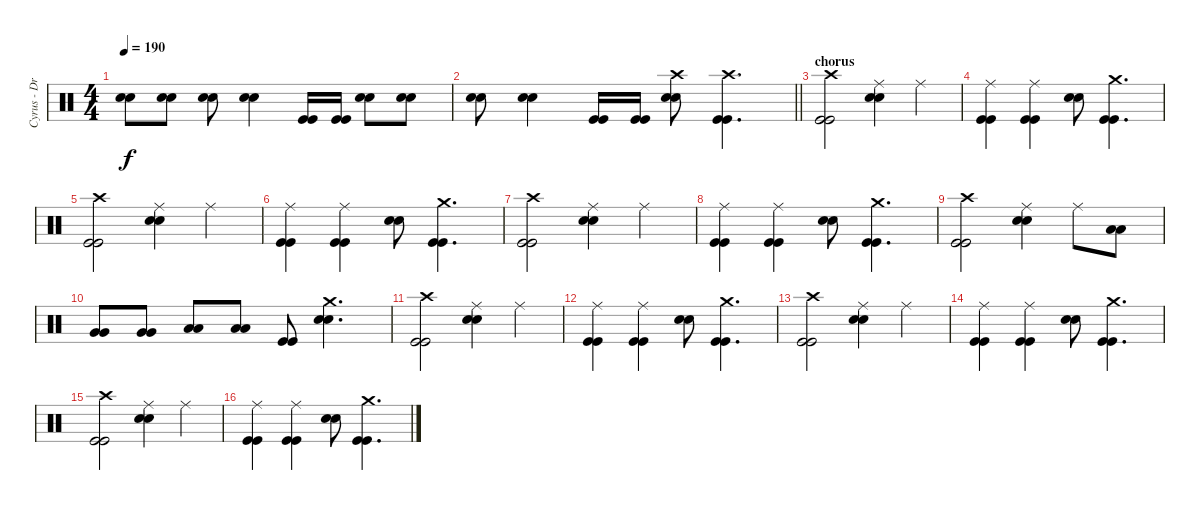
\track ("Cyrus - Drums" "Cyrus - Dr") {instrument percussion}
\staff {score}
\articulation defaults
\ts (4 4)
\tempo 190
\clef neutral
\ks c
("Snare (hit) 2" "Snare (hit) 2").8{dy f} ("Snare (hit) 2" "Snare (hit) 2").8 ("Snare (hit) 2" "Snare (hit) 2").8 ("Snare (hit) 2" "Snare (hit) 2").4 ("Kick (hit)" "Kick (hit)").16 ("Kick (hit)" "Kick (hit)").16 ("Snare (hit) 2" "Snare (hit) 2").8 ("Snare (hit) 2" "Snare (hit) 2").8 |
\barLineRight lightlight
("Snare (hit) 2" "Snare (hit) 2").8 ("Snare (hit) 2" "Snare (hit) 2").4 ("Kick (hit)" "Kick (hit)").16 ("Kick (hit)" "Kick (hit)").16 ("Snare (hit) 2" "Snare (hit) 2" "Crash high (hit)").8 ("Kick (hit)" "Kick (hit)" "Crash high (hit)").4{d} |
\section ("" "chorus")
("Kick (hit)" "Kick (hit)" "Crash high (hit)").2 ("Snare (hit) 2" "Snare (hit) 2" "Ride (middle)").4 "Ride (middle)".4 |
("Kick (hit)" "Kick (hit)" "Ride (middle)").4 ("Kick (hit)" "Kick (hit)" "Ride (middle)").4 ("Snare (hit) 2" "Snare (hit) 2").8 ("Kick (hit)" "Kick (hit)" "Crash medium (hit)").4{d} |
("Kick (hit)" "Kick (hit)" "Crash high (hit)").2 ("Snare (hit) 2" "Snare (hit) 2" "Ride (middle)").4 "Ride (middle)".4 |
("Kick (hit)" "Kick (hit)" "Ride (middle)").4 ("Kick (hit)" "Kick (hit)" "Ride (middle)").4 ("Snare (hit) 2" "Snare (hit) 2").8 ("Kick (hit)" "Kick (hit)" "Crash medium (hit)").4{d} |
("Kick (hit)" "Kick (hit)" "Crash high (hit)").2 ("Snare (hit) 2" "Snare (hit) 2" "Ride (middle)").4 "Ride (middle)".4 |
("Kick (hit)" "Kick (hit)" "Ride (middle)").4 ("Kick (hit)" "Kick (hit)" "Ride (middle)").4 ("Snare (hit) 2" "Snare (hit) 2").8 ("Kick (hit)" "Kick (hit)" "Crash medium (hit)").4{d} |
("Kick (hit)" "Kick (hit)" "Crash high (hit)").2 ("Snare (hit) 2" "Snare (hit) 2" "Ride (middle)").4 "Ride (middle)".8 ("Low Tom (hit)" "Low Tom (hit)").8 |
("Very Low Tom (hit)" "Very Low Tom (hit)").8 ("Very Low Tom (hit)" "Very Low Tom (hit)").8 ("Low Floor Tom (hit)" "Low Floor Tom (hit)").8 ("Low Floor Tom (hit)" "Low Floor Tom (hit)").8 ("Kick (hit)" "Kick (hit)").8 ("Snare (hit) 2" "Snare (hit) 2" "Crash medium (hit)").4{d} |
("Kick (hit)" "Kick (hit)" "Crash high (hit)").2 ("Snare (hit) 2" "Snare (hit) 2" "Ride (middle)").4 "Ride (middle)".4 |
("Kick (hit)" "Kick (hit)" "Ride (middle)").4 ("Kick (hit)" "Kick (hit)" "Ride (middle)").4 ("Snare (hit) 2" "Snare (hit) 2").8 ("Kick (hit)" "Kick (hit)" "Crash medium (hit)").4{d} |
("Kick (hit)" "Kick (hit)" "Crash high (hit)").2 ("Snare (hit) 2" "Snare (hit) 2" "Ride (middle)").4 "Ride (middle)".4 |
("Kick (hit)" "Kick (hit)" "Ride (middle)").4 ("Kick (hit)" "Kick (hit)" "Ride (middle)").4 ("Snare (hit) 2" "Snare (hit) 2").8 ("Kick (hit)" "Kick (hit)" "Crash medium (hit)").4{d} |
("Kick (hit)" "Kick (hit)" "Crash high (hit)").2 ("Snare (hit) 2" "Snare (hit) 2" "Ride (middle)").4 "Ride (middle)".4 |
("Kick (hit)" "Kick (hit)" "Ride (middle)").4 ("Kick (hit)" "Kick (hit)" "Ride (middle)").4 ("Snare (hit) 2" "Snare (hit) 2").8 ("Kick (hit)" "Kick (hit)" "Crash medium (hit)").4{d}
